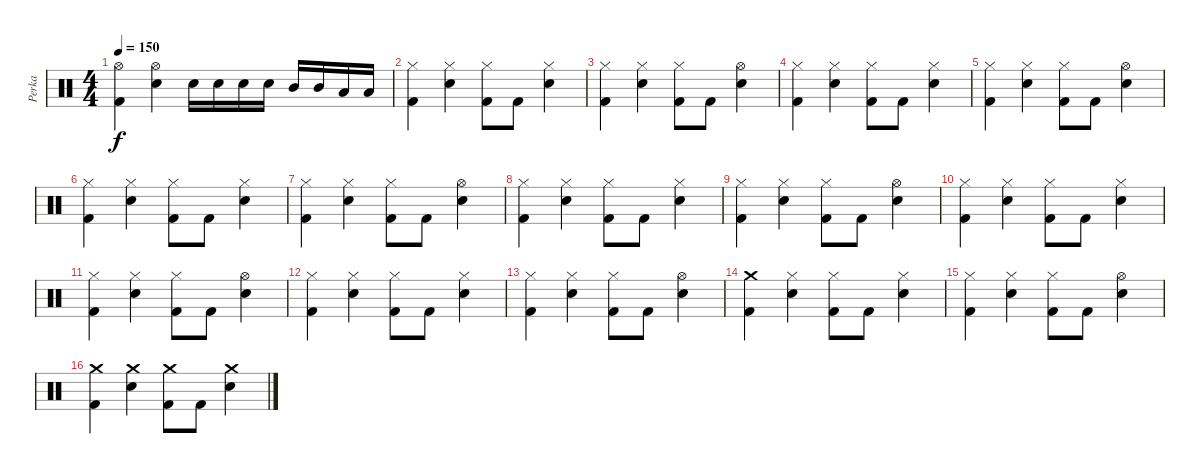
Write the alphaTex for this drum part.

\track ("Perka" "Perka") {instrument percussion}
\staff {score}
\articulation defaults
\ts (4 4)
\tempo 150
\clef neutral
\ks c
("Hi-Hat (open)" "Kick (hit) 2").4{dy f} ("Hi-Hat (open)" "Snare (hit) 2").4 "Snare (hit) 2".16 "Snare (hit) 2".16 "Snare (hit) 2".16 "Snare (hit) 2".16 "Mid Tom (hit)".16 "Mid Tom (hit)".16 "Low Tom (hit)".16 "Low Tom (hit)".16 |
("Hi-Hat (closed)" "Kick (hit) 2").4 ("Hi-Hat (closed)" "Snare (hit) 2").4 ("Hi-Hat (closed)" "Kick (hit) 2").8 "Kick (hit) 2".8 ("Hi-Hat (closed)" "Snare (hit) 2").4 |
("Hi-Hat (closed)" "Kick (hit) 2").4 ("Hi-Hat (closed)" "Snare (hit) 2").4 ("Hi-Hat (closed)" "Kick (hit) 2").8 "Kick (hit) 2".8 ("Hi-Hat (open)" "Snare (hit) 2").4 |
("Hi-Hat (closed)" "Kick (hit) 2").4 ("Hi-Hat (closed)" "Snare (hit) 2").4 ("Hi-Hat (closed)" "Kick (hit) 2").8 "Kick (hit) 2".8 ("Hi-Hat (closed)" "Snare (hit) 2").4 |
("Hi-Hat (closed)" "Kick (hit) 2").4 ("Hi-Hat (closed)" "Snare (hit) 2").4 ("Hi-Hat (closed)" "Kick (hit) 2").8 "Kick (hit) 2".8 ("Hi-Hat (open)" "Snare (hit) 2").4 |
("Hi-Hat (closed)" "Kick (hit) 2").4 ("Hi-Hat (closed)" "Snare (hit) 2").4 ("Hi-Hat (closed)" "Kick (hit) 2").8 "Kick (hit) 2".8 ("Hi-Hat (closed)" "Snare (hit) 2").4 |
("Hi-Hat (closed)" "Kick (hit) 2").4 ("Hi-Hat (closed)" "Snare (hit) 2").4 ("Hi-Hat (closed)" "Kick (hit) 2").8 "Kick (hit) 2".8 ("Hi-Hat (open)" "Snare (hit) 2").4 |
("Hi-Hat (closed)" "Kick (hit) 2").4 ("Hi-Hat (closed)" "Snare (hit) 2").4 ("Hi-Hat (closed)" "Kick (hit) 2").8 "Kick (hit) 2".8 ("Hi-Hat (closed)" "Snare (hit) 2").4 |
("Hi-Hat (closed)" "Kick (hit) 2").4 ("Hi-Hat (closed)" "Snare (hit) 2").4 ("Hi-Hat (closed)" "Kick (hit) 2").8 "Kick (hit) 2".8 ("Hi-Hat (open)" "Snare (hit) 2").4 |
("Hi-Hat (closed)" "Kick (hit) 2").4 ("Hi-Hat (closed)" "Snare (hit) 2").4 ("Hi-Hat (closed)" "Kick (hit) 2").8 "Kick (hit) 2".8 ("Hi-Hat (closed)" "Snare (hit) 2").4 |
("Hi-Hat (closed)" "Kick (hit) 2").4 ("Hi-Hat (closed)" "Snare (hit) 2").4 ("Hi-Hat (closed)" "Kick (hit) 2").8 "Kick (hit) 2".8 ("Hi-Hat (open)" "Snare (hit) 2").4 |
("Hi-Hat (closed)" "Kick (hit) 2").4 ("Hi-Hat (closed)" "Snare (hit) 2").4 ("Hi-Hat (closed)" "Kick (hit) 2").8 "Kick (hit) 2".8 ("Hi-Hat (closed)" "Snare (hit) 2").4 |
("Hi-Hat (closed)" "Kick (hit) 2").4 ("Hi-Hat (closed)" "Snare (hit) 2").4 ("Hi-Hat (closed)" "Kick (hit) 2").8 "Kick (hit) 2".8 ("Hi-Hat (open)" "Snare (hit) 2").4 |
("Crash medium (hit)" "Kick (hit) 2").4 ("Hi-Hat (closed)" "Snare (hit) 2").4 ("Hi-Hat (closed)" "Kick (hit) 2").8 "Kick (hit) 2".8 ("Hi-Hat (closed)" "Snare (hit) 2").4 |
("Hi-Hat (closed)" "Kick (hit) 2").4 ("Hi-Hat (closed)" "Snare (hit) 2").4 ("Hi-Hat (closed)" "Kick (hit) 2").8 "Kick (hit) 2".8 ("Hi-Hat (open)" "Snare (hit) 2").4 |
("Crash medium (hit)" "Kick (hit) 2").4 ("Crash medium (hit)" "Snare (hit) 2").4 ("Crash medium (hit)" "Kick (hit) 2").8 "Kick (hit) 2".8 ("Crash medium (hit)" "Snare (hit) 2").4
